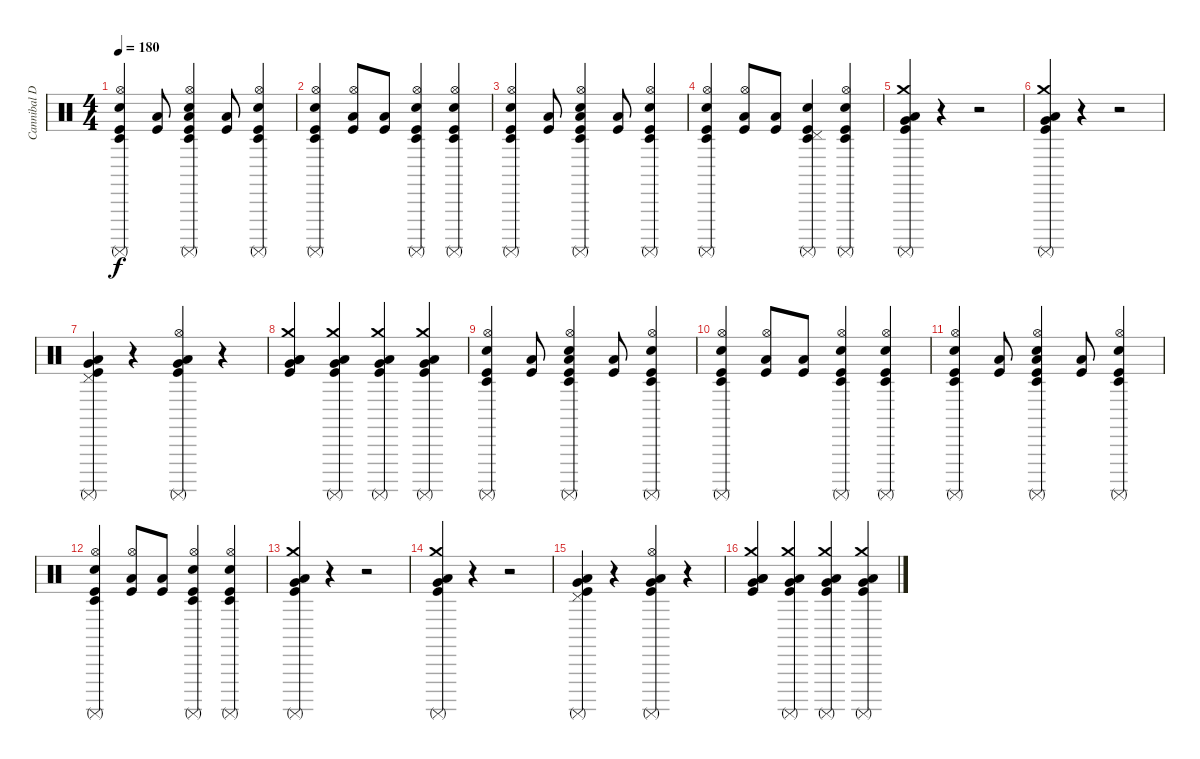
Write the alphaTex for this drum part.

\track ("Cannibal Drums :)" "Cannibal D") {instrument percussion}
\staff {score}
\articulation defaults
\ts (4 4)
\tempo 180
\clef neutral
\ks c
("Kick (hit)" "Hi-Hat (open)" "Surdo (mute)" "Timbale low (hit)" "Snare (hit) 2").4{dy f} ("Kick (hit)" "Low Floor Tom (hit)").8 ("Kick (hit)" "Hi-Hat (open)" "Timbale low (hit)" "Low Tom (hit)" "Snare (hit) 2" "Surdo (mute)").4 ("Kick (hit)" "Low Floor Tom (hit)").8 ("Kick (hit)" "Hi-Hat (open)" "Timbale low (hit)" "Surdo (mute)" "Snare (hit) 2").4 |
("Kick (hit)" "Hi-Hat (open)" "Timbale low (hit)" "Surdo (mute)" "Snare (hit) 2").4 ("Kick (hit)" "Hi-Hat (open)" "Low Floor Tom (hit)").8 ("Kick (hit)" "Low Floor Tom (hit)").8 ("Kick (hit)" "Hi-Hat (open)" "Timbale low (hit)" "Surdo (mute)" "Snare (hit) 2").4 ("Kick (hit)" "Hi-Hat (open)" "Timbale low (hit)" "Surdo (mute)" "Snare (hit) 2").4 |
("Kick (hit)" "Hi-Hat (open)" "Surdo (mute)" "Timbale low (hit)" "Snare (hit) 2").4 ("Kick (hit)" "Low Floor Tom (hit)").8 ("Kick (hit)" "Hi-Hat (open)" "Timbale low (hit)" "Low Tom (hit)" "Snare (hit) 2" "Surdo (mute)").4 ("Kick (hit)" "Low Floor Tom (hit)").8 ("Kick (hit)" "Hi-Hat (open)" "Timbale low (hit)" "Surdo (mute)" "Snare (hit) 2").4 |
("Kick (hit)" "Hi-Hat (open)" "Timbale low (hit)" "Surdo (mute)" "Snare (hit) 2").4 ("Kick (hit)" "Hi-Hat (open)" "Low Floor Tom (hit)").8 ("Kick (hit)" "Low Floor Tom (hit)").8 ("Kick (hit)" "Pedal Hi-Hat (hit)" "Timbale low (hit)" "Surdo (mute)" "Snare (hit) 2").4 ("Kick (hit)" "Hi-Hat (open)" "Timbale low (hit)" "Surdo (mute)" "Snare (hit) 2").4 |
("Kick (hit)" "Crash medium (hit)" "Low Tom (hit)" "Surdo (mute)" "Very Low Tom (hit)").4 r.4 r.2 |
("Kick (hit)" "Crash medium (hit)" "Low Tom (hit)" "Surdo (mute)" "Very Low Tom (hit)").4 r.4 r.2 |
("Kick (hit)" "Pedal Hi-Hat (hit)" "Low Tom (hit)" "Surdo (mute)" "Very Low Tom (hit)").4 r.4 ("Kick (hit)" "Hi-Hat (open)" "Low Tom (hit)" "Surdo (mute)" "Very Low Tom (hit)").4 r.4 |
("Kick (hit)" "Crash medium (hit)" "Low Tom (hit)" "Low Floor Tom (hit)" "Very Low Tom (hit)").4 ("Kick (hit)" "Crash medium (hit)" "Low Tom (hit)" "Surdo (mute)" "Very Low Tom (hit)").4 ("Kick (hit)" "Crash medium (hit)" "Low Tom (hit)" "Surdo (mute)" "Very Low Tom (hit)").4 ("Kick (hit)" "Crash medium (hit)" "Low Tom (hit)" "Surdo (mute)" "Very Low Tom (hit)").4 |
("Kick (hit)" "Hi-Hat (open)" "Surdo (mute)" "Timbale low (hit)" "Snare (hit) 2").4 ("Kick (hit)" "Low Floor Tom (hit)").8 ("Kick (hit)" "Hi-Hat (open)" "Timbale low (hit)" "Low Tom (hit)" "Snare (hit) 2" "Surdo (mute)").4 ("Kick (hit)" "Low Floor Tom (hit)").8 ("Kick (hit)" "Hi-Hat (open)" "Timbale low (hit)" "Surdo (mute)" "Snare (hit) 2").4 |
("Kick (hit)" "Hi-Hat (open)" "Timbale low (hit)" "Surdo (mute)" "Snare (hit) 2").4 ("Kick (hit)" "Hi-Hat (open)" "Low Floor Tom (hit)").8 ("Kick (hit)" "Low Floor Tom (hit)").8 ("Kick (hit)" "Hi-Hat (open)" "Timbale low (hit)" "Surdo (mute)" "Snare (hit) 2").4 ("Kick (hit)" "Hi-Hat (open)" "Timbale low (hit)" "Surdo (mute)" "Snare (hit) 2").4 |
("Kick (hit)" "Hi-Hat (open)" "Surdo (mute)" "Timbale low (hit)" "Snare (hit) 2").4 ("Kick (hit)" "Low Floor Tom (hit)").8 ("Kick (hit)" "Hi-Hat (open)" "Timbale low (hit)" "Low Tom (hit)" "Snare (hit) 2" "Surdo (mute)").4 ("Kick (hit)" "Low Floor Tom (hit)").8 ("Kick (hit)" "Hi-Hat (open)" "Timbale low (hit)" "Surdo (mute)" "Snare (hit) 2").4 |
("Kick (hit)" "Hi-Hat (open)" "Timbale low (hit)" "Surdo (mute)" "Snare (hit) 2").4 ("Kick (hit)" "Hi-Hat (open)" "Low Floor Tom (hit)").8 ("Kick (hit)" "Low Floor Tom (hit)").8 ("Kick (hit)" "Hi-Hat (open)" "Timbale low (hit)" "Surdo (mute)" "Snare (hit) 2").4 ("Kick (hit)" "Hi-Hat (open)" "Timbale low (hit)" "Surdo (mute)" "Snare (hit) 2").4 |
("Kick (hit)" "Crash medium (hit)" "Low Tom (hit)" "Surdo (mute)" "Very Low Tom (hit)").4 r.4 r.2 |
("Kick (hit)" "Crash medium (hit)" "Low Tom (hit)" "Surdo (mute)" "Very Low Tom (hit)").4 r.4 r.2 |
("Kick (hit)" "Pedal Hi-Hat (hit)" "Low Tom (hit)" "Surdo (mute)" "Very Low Tom (hit)").4 r.4 ("Kick (hit)" "Hi-Hat (open)" "Low Tom (hit)" "Surdo (mute)" "Very Low Tom (hit)").4 r.4 |
("Kick (hit)" "Crash medium (hit)" "Low Tom (hit)" "Low Floor Tom (hit)" "Very Low Tom (hit)").4 ("Kick (hit)" "Crash medium (hit)" "Low Tom (hit)" "Surdo (mute)" "Very Low Tom (hit)").4 ("Kick (hit)" "Crash medium (hit)" "Low Tom (hit)" "Surdo (mute)" "Very Low Tom (hit)").4 ("Kick (hit)" "Crash medium (hit)" "Low Tom (hit)" "Surdo (mute)" "Very Low Tom (hit)").4
